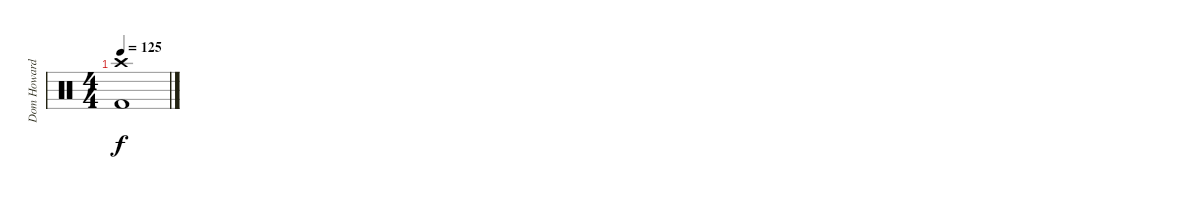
\track ("Dom Howard" "Dom Howard") {instrument percussion}
\staff {score}
\articulation defaults
\ts (4 4)
\tempo 125
\clef neutral
\ks c
("Crash high (hit)" "Kick (hit) 2").1{dy f}
